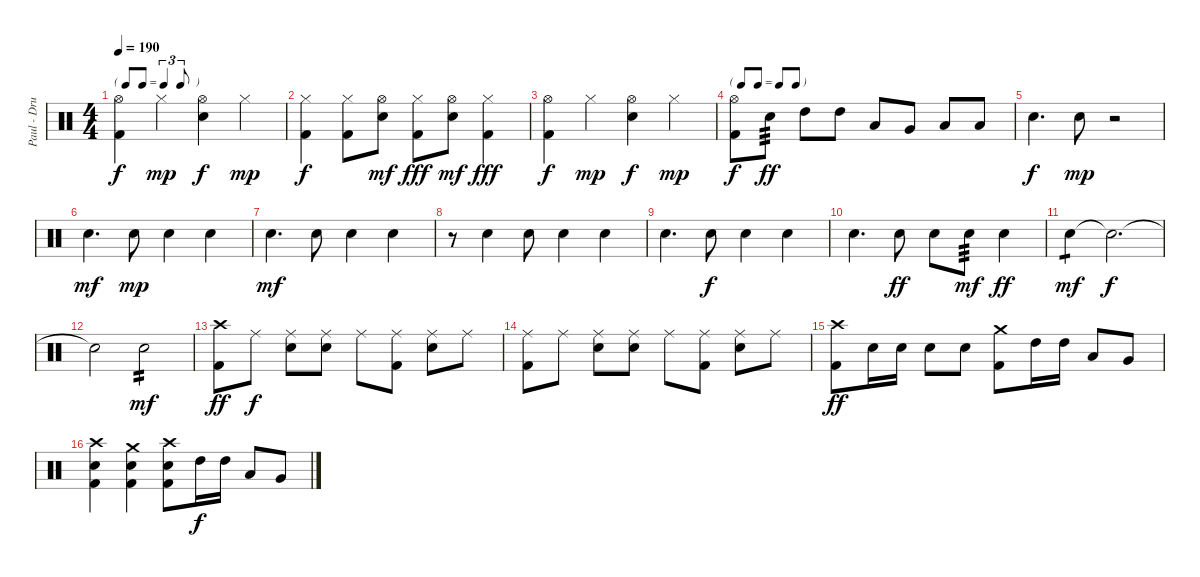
\track ("Paul - Drums" "Paul - Dru") {instrument percussion}
\staff {score}
\articulation defaults
\ts (4 4)
\tf triplet8th
\tempo 190
\clef neutral
\ks c
("Hi-Hat (open)" "Kick (hit) 2").4{dy f} "Hi-Hat (closed)".4{dy mp} ("Hi-Hat (open)" "Electric Snare (hit)").4{dy f} "Hi-Hat (closed)".4{dy mp} |
("Hi-Hat (closed)" "Kick (hit) 2").4{dy f} ("Hi-Hat (closed)" "Kick (hit) 2").8 ("Hi-Hat (open)" "Electric Snare (hit)").8{dy mf} ("Hi-Hat (closed)" "Kick (hit) 2").8{dy fff} ("Hi-Hat (open)" "Electric Snare (hit)").8{dy mf} ("Hi-Hat (closed)" "Kick (hit) 2").4{dy fff} |
("Hi-Hat (open)" "Kick (hit) 2").4{dy f} "Hi-Hat (closed)".4{dy mp} ("Hi-Hat (open)" "Electric Snare (hit)").4{dy f} "Hi-Hat (closed)".4{dy mp} |
\tf none
("Hi-Hat (open)" "Kick (hit) 2").8{dy f} "Electric Snare (hit)".8{tp 3 dy ff} "High Tom (hit)".8 "High Tom (hit)".8 "Low Tom (hit)".8 "Very Low Tom (hit)".8 "Low Floor Tom (hit)".8 "Low Floor Tom (hit)".8 |
"Electric Snare (hit)".4{d dy f} "Electric Snare (hit)".8{dy mp} r.2 |
"Electric Snare (hit)".4{d dy mf} "Electric Snare (hit)".8{dy mp} "Electric Snare (hit)".4 "Electric Snare (hit)".4 |
"Electric Snare (hit)".4{d dy mf} "Electric Snare (hit)".8 "Electric Snare (hit)".4 "Electric Snare (hit)".4 |
r.8 "Electric Snare (hit)".4 "Electric Snare (hit)".8 "Electric Snare (hit)".4 "Electric Snare (hit)".4 |
"Electric Snare (hit)".4{d} "Electric Snare (hit)".8{dy f} "Electric Snare (hit)".4 "Electric Snare (hit)".4 |
"Electric Snare (hit)".4{d} "Electric Snare (hit)".8{dy ff} "Electric Snare (hit)".8 "Electric Snare (hit)".8{tp 3 dy mf} "Electric Snare (hit)".4{dy ff} |
"Electric Snare (hit)".4{tp 1 dy mf volume 2} "Electric Snare (hit)"{t}.2{d dy f volume 10} |
"Snare (hit)"{t}.2 "Electric Snare (hit)".2{tp 2 dy mf} |
("Crash high (hit)" "Kick (hit) 2").8{dy ff} "Ride (middle)".8{dy f volume 10} ("Ride (middle)" "Electric Snare (hit)").8 ("Ride (middle)" "Electric Snare (hit)").8 "Ride (middle)".8 ("Ride (middle)" "Kick (hit) 2").8 ("Ride (middle)" "Electric Snare (hit)").8 "Ride (middle)".8 |
("Ride (middle)" "Kick (hit) 2").8 "Ride (middle)".8 ("Ride (middle)" "Electric Snare (hit)").8 ("Ride (middle)" "Electric Snare (hit)").8 "Ride (middle)".8 ("Ride (middle)" "Kick (hit) 2").8 ("Ride (middle)" "Electric Snare (hit)").8 "Ride (middle)".8 |
("Crash high (hit)" "Kick (hit) 2").8{dy ff} "Electric Snare (hit)".16 "Electric Snare (hit)".16 "Electric Snare (hit)".8 "Electric Snare (hit)".8 ("Crash medium (hit)" "Kick (hit) 2").8 "High Tom (hit)".16 "High Tom (hit)".16 "Low Tom (hit)".8 "Very Low Tom (hit)".8 |
("Crash high (hit)" "Electric Snare (hit)" "Kick (hit) 2").4 ("Crash medium (hit)" "Electric Snare (hit)" "Kick (hit) 2").4 ("Crash high (hit)" "Electric Snare (hit)" "Kick (hit) 2").8 "High Tom (hit)".16{dy f} "High Tom (hit)".16 "Low Tom (hit)".8 "Very Low Tom (hit)".8
